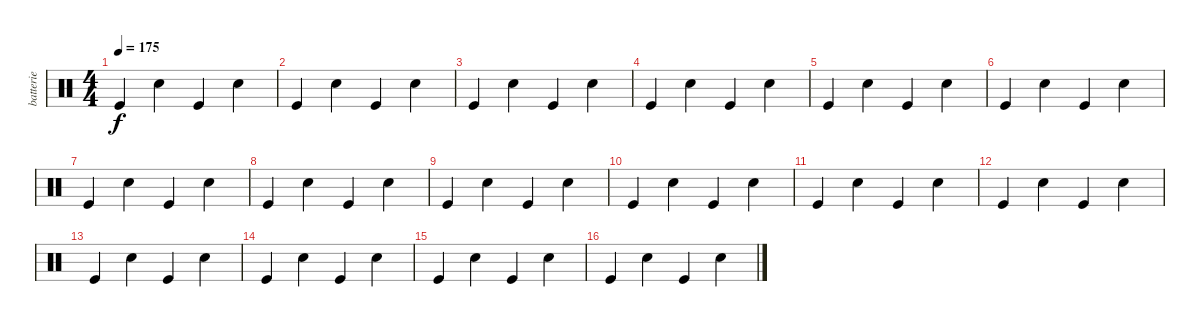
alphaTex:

\track ("batterie" "batterie") {instrument percussion}
\staff {score}
\articulation defaults
\ts (4 4)
\tempo 175
\clef neutral
\ks c "Kick (hit)".4{dy f} "Snare (hit) 2".4 "Kick (hit)".4 "Snare (hit) 2".4
|
"Kick (hit)".4 "Snare (hit) 2".4 "Kick (hit)".4 "Snare (hit) 2".4 |
"Kick (hit)".4 "Snare (hit) 2".4 "Kick (hit)".4 "Snare (hit) 2".4 |
"Kick (hit)".4 "Snare (hit) 2".4 "Kick (hit)".4 "Snare (hit) 2".4 |
"Kick (hit)".4 "Snare (hit) 2".4 "Kick (hit)".4 "Snare (hit) 2".4 |
"Kick (hit)".4 "Snare (hit) 2".4 "Kick (hit)".4 "Snare (hit) 2".4 |
"Kick (hit)".4 "Snare (hit) 2".4 "Kick (hit)".4 "Snare (hit) 2".4 |
"Kick (hit)".4 "Snare (hit) 2".4 "Kick (hit)".4 "Snare (hit) 2".4 |
"Kick (hit)".4 "Snare (hit) 2".4 "Kick (hit)".4 "Snare (hit) 2".4 |
"Kick (hit)".4 "Snare (hit) 2".4 "Kick (hit)".4 "Snare (hit) 2".4 |
"Kick (hit)".4 "Snare (hit) 2".4 "Kick (hit)".4 "Snare (hit) 2".4 |
"Kick (hit)".4 "Snare (hit) 2".4 "Kick (hit)".4 "Snare (hit) 2".4 |
"Kick (hit)".4 "Snare (hit) 2".4 "Kick (hit)".4 "Snare (hit) 2".4 |
"Kick (hit)".4 "Snare (hit) 2".4 "Kick (hit)".4 "Snare (hit) 2".4 |
"Kick (hit)".4 "Snare (hit) 2".4 "Kick (hit)".4 "Snare (hit) 2".4 |
"Kick (hit)".4 "Snare (hit) 2".4 "Kick (hit)".4 "Snare (hit) 2".4
